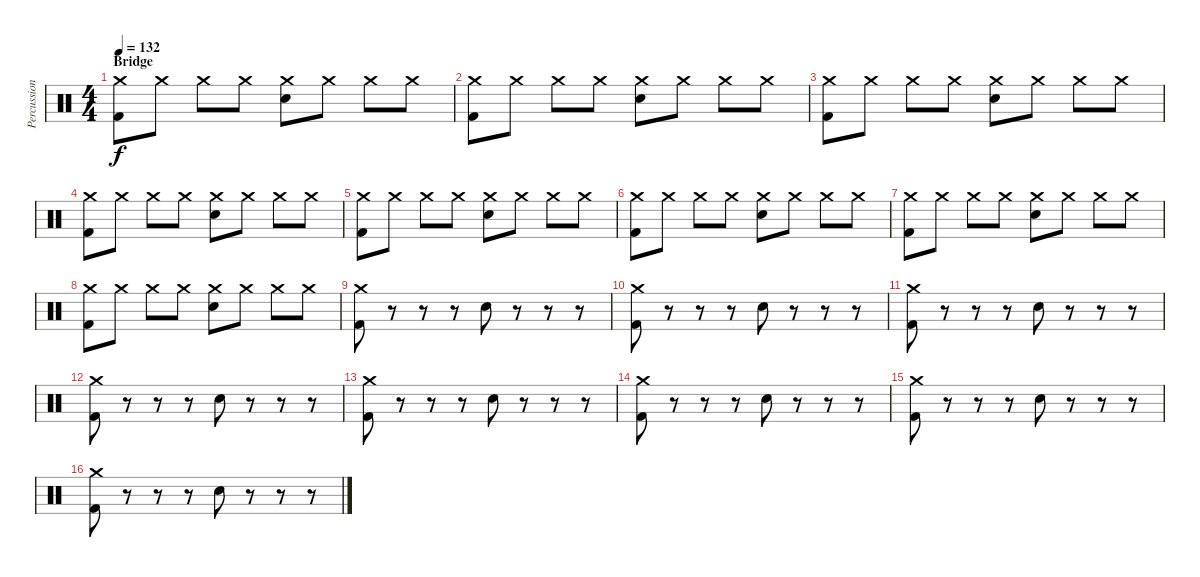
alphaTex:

\track ("Percussion" "Percussion") {instrument percussion}
\staff {score}
\articulation defaults
\ts (4 4)
\section ("" "Bridge")
\tempo 132
\clef neutral
\ks c
("Crash medium (hit)" "Kick (hit) 2").8{dy f} "Crash medium (hit)".8 "Crash medium (hit)".8 "Crash medium (hit)".8 ("Crash medium (hit)" "Electric Snare (hit)").8 "Crash medium (hit)".8 "Crash medium (hit)".8 "Crash medium (hit)".8 |
("Crash medium (hit)" "Kick (hit) 2").8 "Crash medium (hit)".8 "Crash medium (hit)".8 "Crash medium (hit)".8 ("Crash medium (hit)" "Electric Snare (hit)").8 "Crash medium (hit)".8 "Crash medium (hit)".8 "Crash medium (hit)".8 |
("Crash medium (hit)" "Kick (hit) 2").8 "Crash medium (hit)".8 "Crash medium (hit)".8 "Crash medium (hit)".8 ("Crash medium (hit)" "Electric Snare (hit)").8 "Crash medium (hit)".8 "Crash medium (hit)".8 "Crash medium (hit)".8 |
("Crash medium (hit)" "Kick (hit) 2").8 "Crash medium (hit)".8 "Crash medium (hit)".8 "Crash medium (hit)".8 ("Crash medium (hit)" "Electric Snare (hit)").8 "Crash medium (hit)".8 "Crash medium (hit)".8 "Crash medium (hit)".8 |
("Crash medium (hit)" "Kick (hit) 2").8 "Crash medium (hit)".8 "Crash medium (hit)".8 "Crash medium (hit)".8 ("Crash medium (hit)" "Electric Snare (hit)").8 "Crash medium (hit)".8 "Crash medium (hit)".8 "Crash medium (hit)".8 |
("Crash medium (hit)" "Kick (hit) 2").8 "Crash medium (hit)".8 "Crash medium (hit)".8 "Crash medium (hit)".8 ("Crash medium (hit)" "Electric Snare (hit)").8 "Crash medium (hit)".8 "Crash medium (hit)".8 "Crash medium (hit)".8 |
("Crash medium (hit)" "Kick (hit) 2").8 "Crash medium (hit)".8 "Crash medium (hit)".8 "Crash medium (hit)".8 ("Crash medium (hit)" "Electric Snare (hit)").8 "Crash medium (hit)".8 "Crash medium (hit)".8 "Crash medium (hit)".8 |
("Crash medium (hit)" "Kick (hit) 2").8 "Crash medium (hit)".8 "Crash medium (hit)".8 "Crash medium (hit)".8 ("Crash medium (hit)" "Electric Snare (hit)").8 "Crash medium (hit)".8 "Crash medium (hit)".8 "Crash medium (hit)".8 |
("Crash medium (hit)" "Kick (hit) 2").8 r.8 r.8 r.8 "Electric Snare (hit)".8 r.8 r.8 r.8 |
("Crash medium (hit)" "Kick (hit) 2").8 r.8 r.8 r.8 "Electric Snare (hit)".8 r.8 r.8 r.8 |
("Crash medium (hit)" "Kick (hit) 2").8 r.8 r.8 r.8 "Electric Snare (hit)".8 r.8 r.8 r.8 |
("Crash medium (hit)" "Kick (hit) 2").8 r.8 r.8 r.8 "Electric Snare (hit)".8 r.8 r.8 r.8 |
("Crash medium (hit)" "Kick (hit) 2").8 r.8 r.8 r.8 "Electric Snare (hit)".8 r.8 r.8 r.8 |
("Crash medium (hit)" "Kick (hit) 2").8 r.8 r.8 r.8 "Electric Snare (hit)".8 r.8 r.8 r.8 |
("Crash medium (hit)" "Kick (hit) 2").8 r.8 r.8 r.8 "Electric Snare (hit)".8 r.8 r.8 r.8 |
("Crash medium (hit)" "Kick (hit) 2").8 r.8 r.8 r.8 "Electric Snare (hit)".8 r.8 r.8 r.8
